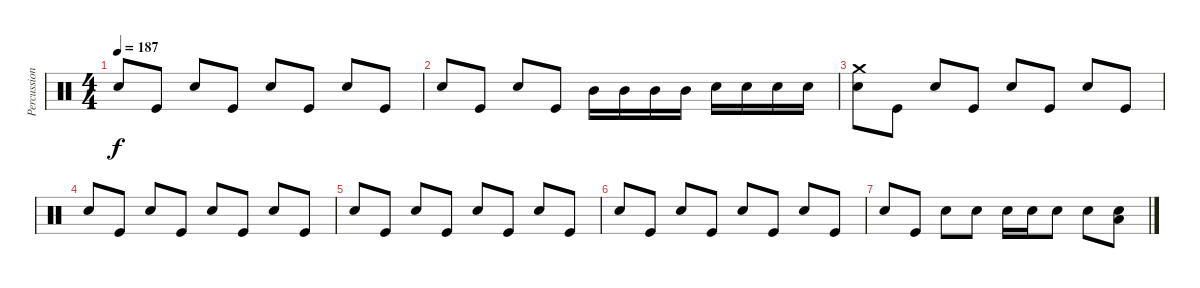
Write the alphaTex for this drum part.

\track ("Percussion" "Percussion") {instrument percussion}
\staff {score}
\articulation defaults
\ts (4 4)
\tempo 187
\clef neutral
\ks c "Snare (hit) 2".8{dy f} "Kick (hit)".8 "Snare (hit) 2".8 "Kick (hit)".8 "Snare (hit) 2".8 "Kick (hit)".8 "Snare (hit) 2".8 "Kick (hit)".8
|
"Snare (hit) 2".8 "Kick (hit)".8 "Snare (hit) 2".8 "Kick (hit)".8 "Mid Tom (hit)".16 "Mid Tom (hit)".16 "Mid Tom (hit)".16 "Mid Tom (hit)".16 "Snare (hit) 2".16 "Snare (hit) 2".16 "Snare (hit) 2".16 "Snare (hit) 2".16 |
("Crash medium (hit)" "Snare (hit) 2").8 "Kick (hit)".8 "Snare (hit) 2".8 "Kick (hit)".8 "Snare (hit) 2".8 "Kick (hit)".8 "Snare (hit) 2".8 "Kick (hit)".8 |
"Snare (hit) 2".8 "Kick (hit)".8 "Snare (hit) 2".8 "Kick (hit)".8 "Snare (hit) 2".8 "Kick (hit)".8 "Snare (hit) 2".8 "Kick (hit)".8 |
"Snare (hit) 2".8 "Kick (hit)".8 "Snare (hit) 2".8 "Kick (hit)".8 "Snare (hit) 2".8 "Kick (hit)".8 "Snare (hit) 2".8 "Kick (hit)".8 |
"Snare (hit) 2".8 "Kick (hit)".8 "Snare (hit) 2".8 "Kick (hit)".8 "Snare (hit) 2".8 "Kick (hit)".8 "Snare (hit) 2".8 "Kick (hit)".8 |
"Snare (hit) 2".8 "Kick (hit)".8 "Snare (hit) 2".8 "Snare (hit) 2".8 "Snare (hit) 2".16 "Snare (hit) 2".16 "Snare (hit) 2".8 "Snare (hit) 2".8 ("Low Floor Tom (hit)" "Snare (hit) 2").8
